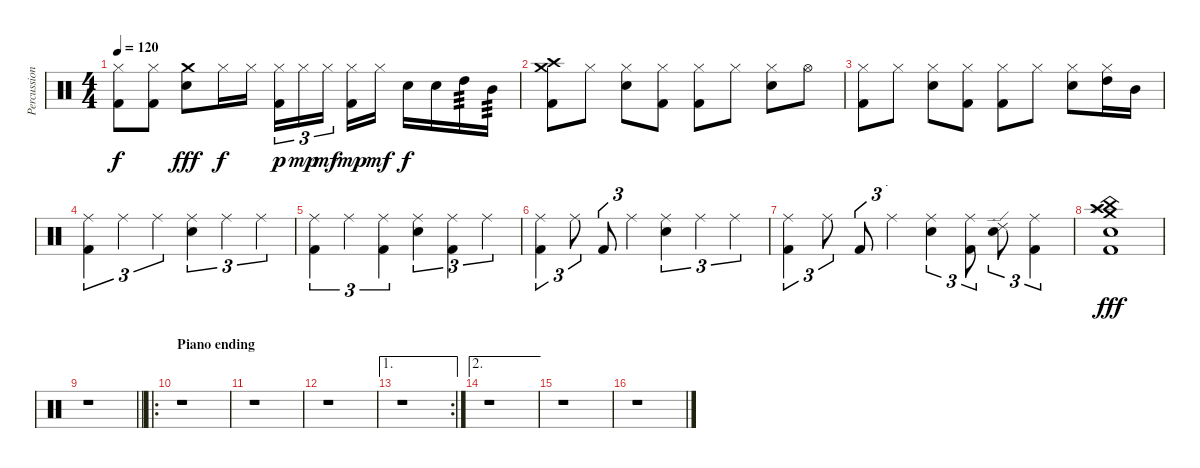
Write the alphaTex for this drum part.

\track ("Percussion" "Percussion") {instrument percussion}
\staff {score}
\articulation defaults
\ts (4 4)
\tempo 120
\clef neutral
\ks c
("Hi-Hat (closed)" "Kick (hit) 2").8{dy f} ("Hi-Hat (closed)" "Kick (hit) 2").8 ("Crash medium (hit)" "Electric Snare (hit)").8{dy fff} "Hi-Hat (closed)".16{dy f} "Hi-Hat (closed)".16 ("Hi-Hat (closed)" "Kick (hit) 2").16{tu (3 2) dy p} "Hi-Hat (closed)".16{tu (3 2) dy mp} "Hi-Hat (closed)".16{tu (3 2) dy mf} ("Hi-Hat (closed)" "Kick (hit) 2").16{dy mp} "Hi-Hat (closed)".16{dy mf} "Electric Snare (hit)".16{dy f} "Electric Snare (hit)".16 "High Tom (hit)".16{tp 3} "Mid Tom (hit)".16{tp 3} |
("Crash high (hit)" "Crash medium (hit)" "Kick (hit) 2").8 "Hi-Hat (closed)".8 ("Hi-Hat (closed)" "Electric Snare (hit)").8 ("Hi-Hat (closed)" "Kick (hit) 2").8 ("Hi-Hat (closed)" "Kick (hit) 2").8 "Hi-Hat (closed)".8 ("Hi-Hat (closed)" "Electric Snare (hit)").8 "Hi-Hat (open)".8 |
("Hi-Hat (closed)" "Kick (hit) 2").8 "Hi-Hat (closed)".8 ("Hi-Hat (closed)" "Electric Snare (hit)").8 ("Hi-Hat (closed)" "Kick (hit) 2").8 ("Hi-Hat (closed)" "Kick (hit) 2").8 "Hi-Hat (closed)".8 ("Hi-Hat (closed)" "Electric Snare (hit)").8 ("Hi-Hat (closed)" "High Tom (hit)").16 "Mid Tom (hit)".16 |
("Ride (middle)" "Kick (hit) 2").4{tu (3 2)} "Ride (middle)".4{tu (3 2)} "Ride (middle)".4{tu (3 2)} ("Ride (middle)" "Electric Snare (hit)").4{tu (3 2)} "Ride (middle)".4{tu (3 2)} "Ride (middle)".4{tu (3 2)} |
("Ride (middle)" "Kick (hit) 2").4{tu (3 2)} "Ride (middle)".4{tu (3 2)} ("Ride (middle)" "Kick (hit) 2").4{tu (3 2)} ("Ride (middle)" "Electric Snare (hit)").4{tu (3 2)} ("Ride (middle)" "Kick (hit) 2").4{tu (3 2)} "Ride (middle)".4{tu (3 2)} |
("Ride (middle)" "Kick (hit) 2").4{tu (3 2)} "Ride (middle)".8{tu (3 2)} "Kick (hit) 2".8{tu (3 2)} "Ride (middle)".4{tu (3 2)} ("Ride (middle)" "Electric Snare (hit)").4{tu (3 2)} "Ride (middle)".4{tu (3 2)} "Ride (middle)".4{tu (3 2)} |
("Ride (middle)" "Kick (hit) 2").4{tu (3 2)} "Ride (middle)".8{tu (3 2)} "Kick (hit) 2".8{tu (3 2)} "Ride (middle)".4{tu (3 2)} ("Ride (middle)" "Electric Snare (hit)").4{tu (3 2)} ("Ride (middle)" "Kick (hit) 2").8{tu (3 2)} ("Ride (edge) 2" "Electric Snare (hit)").8{tu (3 2)} ("Ride (middle)" "Kick (hit) 2").4{tu (3 2)} |
("Crash high (hit)" "Crash medium (hit)" "China (hit)" "Splash (hit)" "Electric Snare (hit)" "Kick (hit) 2").1{dy fff} |
\barLineRight lightlight
r.1 |
\ro
\section ("" "Piano ending")
r.1 |
r.1 |
r.1 |
\ae 1
\rc 2
r.1 |
\ae 2
r.1 |
r.1 |
r.1
